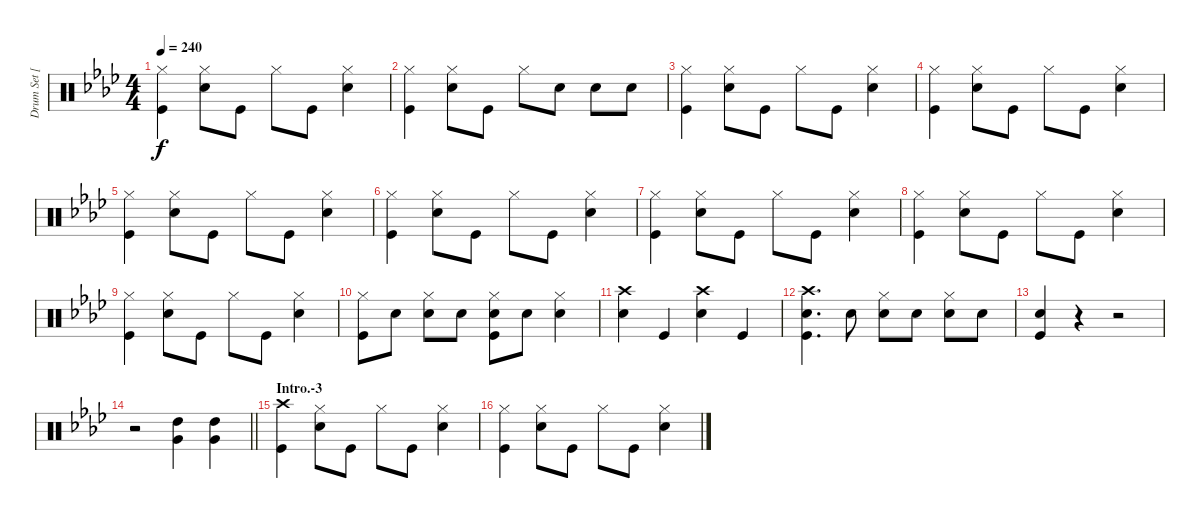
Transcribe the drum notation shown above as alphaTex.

\track ("Drum Set [Ritsu]" "Drum Set [") {instrument percussion}
\staff {score}
\articulation defaults
\ts (4 4)
\tempo 240
\clef neutral
\ks ab
("Hi-Hat (closed)" "Kick (hit)").4{dy f} ("Hi-Hat (closed)" "Snare (hit) 2").8 "Kick (hit)".8 "Hi-Hat (closed)".8 "Kick (hit)".8 ("Hi-Hat (closed)" "Snare (hit) 2").4 |
("Hi-Hat (closed)" "Kick (hit)").4 ("Hi-Hat (closed)" "Snare (hit) 2").8 "Kick (hit)".8 "Hi-Hat (closed)".8 "Snare (hit) 2".8 "Snare (hit) 2".8 "Snare (hit) 2".8 |
("Hi-Hat (closed)" "Kick (hit)").4 ("Hi-Hat (closed)" "Snare (hit) 2").8 "Kick (hit)".8 "Hi-Hat (closed)".8 "Kick (hit)".8 ("Hi-Hat (closed)" "Snare (hit) 2").4 |
("Hi-Hat (closed)" "Kick (hit)").4 ("Hi-Hat (closed)" "Snare (hit) 2").8 "Kick (hit)".8 "Hi-Hat (closed)".8 "Kick (hit)".8 ("Hi-Hat (closed)" "Snare (hit) 2").4 |
("Hi-Hat (closed)" "Kick (hit)").4 ("Hi-Hat (closed)" "Snare (hit) 2").8 "Kick (hit)".8 "Hi-Hat (closed)".8 "Kick (hit)".8 ("Hi-Hat (closed)" "Snare (hit) 2").4 |
("Hi-Hat (closed)" "Kick (hit)").4 ("Hi-Hat (closed)" "Snare (hit) 2").8 "Kick (hit)".8 "Hi-Hat (closed)".8 "Kick (hit)".8 ("Hi-Hat (closed)" "Snare (hit) 2").4 |
("Hi-Hat (closed)" "Kick (hit)").4 ("Hi-Hat (closed)" "Snare (hit) 2").8 "Kick (hit)".8 "Hi-Hat (closed)".8 "Kick (hit)".8 ("Hi-Hat (closed)" "Snare (hit) 2").4 |
("Hi-Hat (closed)" "Kick (hit)").4 ("Hi-Hat (closed)" "Snare (hit) 2").8 "Kick (hit)".8 "Hi-Hat (closed)".8 "Kick (hit)".8 ("Hi-Hat (closed)" "Snare (hit) 2").4 |
("Hi-Hat (closed)" "Kick (hit)").4 ("Hi-Hat (closed)" "Snare (hit) 2").8 "Kick (hit)".8 "Hi-Hat (closed)".8 "Kick (hit)".8 ("Hi-Hat (closed)" "Snare (hit) 2").4 |
("Hi-Hat (closed)" "Kick (hit)").8 "Snare (hit) 2".8 ("Hi-Hat (closed)" "Snare (hit) 2").8 "Snare (hit) 2".8 ("Hi-Hat (closed)" "Snare (hit) 2" "Kick (hit)").8 "Snare (hit) 2".8 ("Hi-Hat (closed)" "Snare (hit) 2").4 |
("Crash high (hit)" "Snare (hit) 2").4 "Kick (hit)".4 ("Crash high (hit)" "Snare (hit) 2").4 "Kick (hit)".4 |
("Crash high (hit)" "Snare (hit) 2" "Kick (hit)").4{d} "Snare (hit) 2".8 ("Hi-Hat (closed)" "Snare (hit) 2").8 "Snare (hit) 2".8 ("Hi-Hat (closed)" "Snare (hit) 2").8 "Snare (hit) 2".8 |
("Snare (hit) 2" "Kick (hit)").4 r.4 r.2 |
\barLineRight lightlight
r.2 ("High Tom (hit)" "Very Low Tom (hit)").4 ("High Tom (hit)" "Very Low Tom (hit)").4 |
\section ("" "Intro.-3")
("Crash high (hit)" "Kick (hit)").4 ("Hi-Hat (closed)" "Snare (hit) 2").8 "Kick (hit)".8 "Hi-Hat (closed)".8 "Kick (hit)".8 ("Hi-Hat (closed)" "Snare (hit) 2").4 |
("Hi-Hat (closed)" "Kick (hit)").4 ("Hi-Hat (closed)" "Snare (hit) 2").8 "Kick (hit)".8 "Hi-Hat (closed)".8 "Kick (hit)".8 ("Hi-Hat (closed)" "Snare (hit) 2").4
